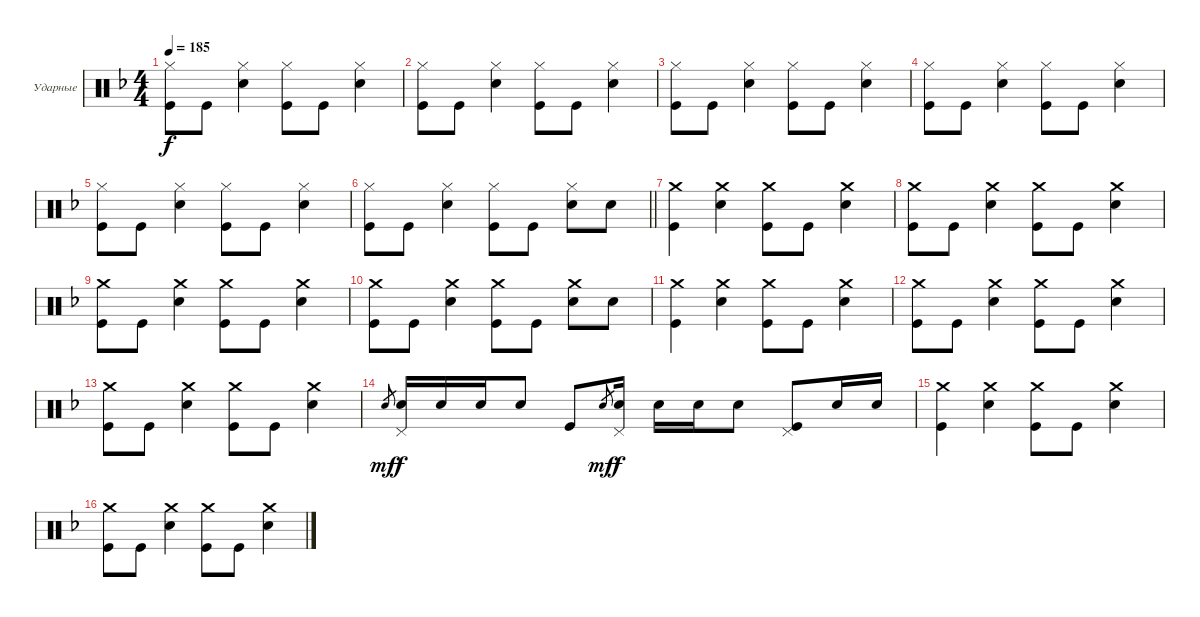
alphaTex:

\bracketExtendMode groupsimilarinstruments
\firstSystemTrackNameOrientation horizontal
\otherSystemsTrackNameOrientation horizontal
\track ("Александр Львов" "Ударные") {instrument percussion}
\staff {score}
\articulation defaults
\ts (4 4)
\tempo 185
\clef neutral
\ks dminor
("Kick (hit)" "Hi-Hat (closed)").8{dy f} "Kick (hit)".8 ("Snare (hit) 2" "Hi-Hat (closed)").4 ("Kick (hit)" "Hi-Hat (closed)").8 "Kick (hit)".8 ("Hi-Hat (closed)" "Snare (hit) 2").4 |
("Kick (hit)" "Hi-Hat (closed)").8 "Kick (hit)".8 ("Snare (hit) 2" "Hi-Hat (closed)").4 ("Kick (hit)" "Hi-Hat (closed)").8 "Kick (hit)".8 ("Hi-Hat (closed)" "Snare (hit) 2").4 |
("Kick (hit)" "Hi-Hat (closed)").8 "Kick (hit)".8 ("Snare (hit) 2" "Hi-Hat (closed)").4 ("Kick (hit)" "Hi-Hat (closed)").8 "Kick (hit)".8 ("Hi-Hat (closed)" "Snare (hit) 2").4 |
("Kick (hit)" "Hi-Hat (closed)").8 "Kick (hit)".8 ("Snare (hit) 2" "Hi-Hat (closed)").4 ("Kick (hit)" "Hi-Hat (closed)").8 "Kick (hit)".8 ("Hi-Hat (closed)" "Snare (hit) 2").4 |
("Kick (hit)" "Hi-Hat (closed)").8 "Kick (hit)".8 ("Snare (hit) 2" "Hi-Hat (closed)").4 ("Kick (hit)" "Hi-Hat (closed)").8 "Kick (hit)".8 ("Hi-Hat (closed)" "Snare (hit) 2").4 |
\barLineRight lightlight
("Kick (hit)" "Hi-Hat (closed)").8 "Kick (hit)".8 ("Snare (hit) 2" "Hi-Hat (closed)").4 ("Kick (hit)" "Hi-Hat (closed)").8 "Kick (hit)".8 ("Hi-Hat (closed)" "Snare (hit) 2").8 "Snare (hit) 2".8 |
("Kick (hit)" "Crash medium (hit)").4 ("Snare (hit) 2" "Crash medium (hit)").4 ("Kick (hit)" "Crash medium (hit)").8 "Kick (hit)".8 ("Snare (hit) 2" "Crash medium (hit)").4 |
("Kick (hit)" "Crash medium (hit)").8 "Kick (hit)".8 ("Snare (hit) 2" "Crash medium (hit)").4 ("Kick (hit)" "Crash medium (hit)").8 "Kick (hit)".8 ("Snare (hit) 2" "Crash medium (hit)").4 |
("Kick (hit)" "Crash medium (hit)").8 "Kick (hit)".8 ("Snare (hit) 2" "Crash medium (hit)").4 ("Kick (hit)" "Crash medium (hit)").8 "Kick (hit)".8 ("Snare (hit) 2" "Crash medium (hit)").4 |
("Kick (hit)" "Crash medium (hit)").8 "Kick (hit)".8 ("Snare (hit) 2" "Crash medium (hit)").4 ("Kick (hit)" "Crash medium (hit)").8 "Kick (hit)".8 ("Snare (hit) 2" "Crash medium (hit)").8 "Snare (hit) 2".8 |
("Kick (hit)" "Crash medium (hit)").4 ("Snare (hit) 2" "Crash medium (hit)").4 ("Kick (hit)" "Crash medium (hit)").8 "Kick (hit)".8 ("Snare (hit) 2" "Crash medium (hit)").4 |
("Kick (hit)" "Crash medium (hit)").8 "Kick (hit)".8 ("Snare (hit) 2" "Crash medium (hit)").4 ("Kick (hit)" "Crash medium (hit)").8 "Kick (hit)".8 ("Snare (hit) 2" "Crash medium (hit)").4 |
("Kick (hit)" "Crash medium (hit)").8 "Kick (hit)".8 ("Snare (hit) 2" "Crash medium (hit)").4 ("Kick (hit)" "Crash medium (hit)").8 "Kick (hit)".8 ("Snare (hit) 2" "Crash medium (hit)").4 |
"Snare (hit) 2".8{gr dy mf} ("Snare (hit) 2" "Pedal Hi-Hat (hit)").16{dy f} "Snare (hit) 2".16 "Snare (hit) 2".16 "Snare (hit) 2".8 "Kick (hit)".8 "Snare (hit) 2".8{gr dy mf} ("Snare (hit) 2" "Pedal Hi-Hat (hit)").16{dy f} "Snare (hit) 2".16 "Snare (hit) 2".16 "Snare (hit) 2".8 ("Kick (hit)" "Pedal Hi-Hat (hit)").8 "Snare (hit) 2".16 "Snare (hit) 2".16 |
("Kick (hit)" "Crash medium (hit)").4 ("Snare (hit) 2" "Crash medium (hit)").4 ("Kick (hit)" "Crash medium (hit)").8 "Kick (hit)".8 ("Snare (hit) 2" "Crash medium (hit)").4 |
("Kick (hit)" "Crash medium (hit)").8 "Kick (hit)".8 ("Snare (hit) 2" "Crash medium (hit)").4 ("Kick (hit)" "Crash medium (hit)").8 "Kick (hit)".8 ("Snare (hit) 2" "Crash medium (hit)").4
